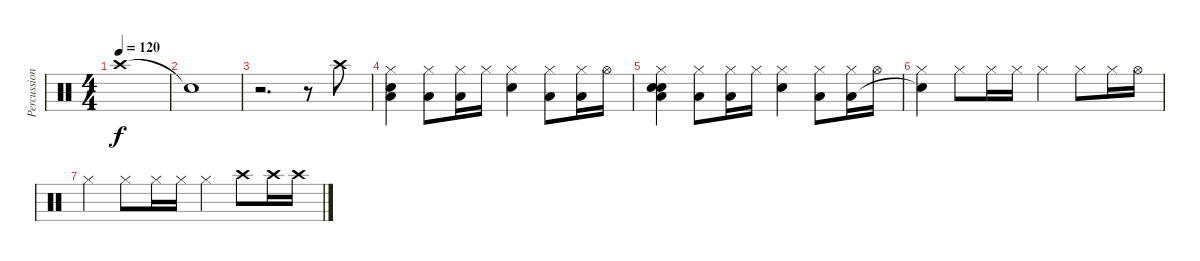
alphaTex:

\track ("Percussions" "Percussion") {instrument percussion}
\staff {score}
\articulation defaults
\ts (4 4)
\tempo 120
\clef neutral
\ks c "Crash high (hit)".1{dy f}
|
"Snare (hit)"{t}.1 |
r.2{d} r.8 "Crash high (hit)".8 |
("Hi-Hat (closed)" "Snare (hit) 2" "Low Tom (hit)").4 ("Hi-Hat (closed)" "Low Tom (hit)").8 ("Hi-Hat (closed)" "Low Tom (hit)").16 "Hi-Hat (closed)".16 ("Hi-Hat (closed)" "Snare (hit) 2").4 ("Hi-Hat (closed)" "Low Tom (hit)").8 ("Hi-Hat (closed)" "Low Tom (hit)").16 "Hi-Hat (open)".16 |
("Hi-Hat (closed)" "Snare (hit) 2" "Low Tom (hit)" "Snare (hit)").4 ("Hi-Hat (closed)" "Low Tom (hit)").8 ("Hi-Hat (closed)" "Low Tom (hit)").16 "Hi-Hat (closed)".16 ("Hi-Hat (closed)" "Snare (hit) 2").4 ("Hi-Hat (closed)" "Low Tom (hit)").8 ("Hi-Hat (closed)" "Low Tom (hit)").16 "Hi-Hat (open)".16 |
("Hi-Hat (closed)" "Snare (hit)"{t}).4 "Hi-Hat (closed)".8 "Hi-Hat (closed)".16 "Hi-Hat (closed)".16 "Hi-Hat (closed)".4 "Hi-Hat (closed)".8 "Hi-Hat (closed)".16 "Hi-Hat (open)".16 |
"Hi-Hat (closed)".4 "Hi-Hat (closed)".8 "Hi-Hat (closed)".16 "Hi-Hat (closed)".16 "Hi-Hat (closed)".4 "Crash high (hit)".8 "Crash high (hit)".16 "Crash high (hit)".16
